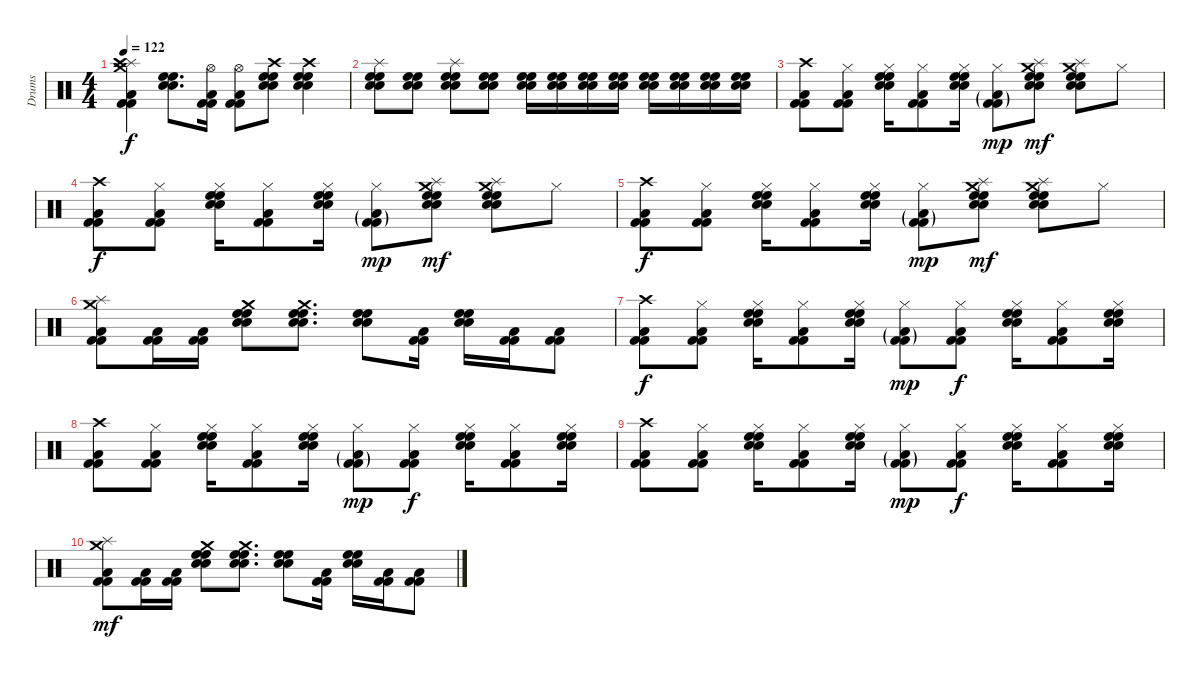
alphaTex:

\track ("Drums" "Drums") {instrument percussion}
\staff {score}
\articulation defaults
\ts (4 4)
\tempo 122
\clef neutral
\ks c
("Crash medium (hit)" "Splash (hit)" "Crash high (hit)" "Low Floor Tom (hit)" "Kick (hit) 2" "Kick (hit) 2").4{dy f} ("Electric Snare (hit)" "High Floor Tom (hit)" "Electric Snare (hit)" "High Floor Tom (hit)").8{d} ("Hi-Hat (open)" "Low Floor Tom (hit)" "Kick (hit) 2" "Kick (hit) 2").16 ("Hi-Hat (open)" "Low Floor Tom (hit)" "Kick (hit) 2" "Kick (hit) 2").8 ("Crash high (hit)" "Electric Snare (hit)" "High Floor Tom (hit)" "Electric Snare (hit)" "High Floor Tom (hit)").8 ("Crash high (hit)" "Electric Snare (hit)" "High Floor Tom (hit)" "Electric Snare (hit)" "High Floor Tom (hit)").4 |
("Splash (hit)" "Electric Snare (hit)" "High Floor Tom (hit)"{x} "High Floor Tom (hit)" "Electric Snare (hit)").8 ("Electric Snare (hit)" "High Floor Tom (hit)"{x} "High Floor Tom (hit)" "Electric Snare (hit)").8 ("Splash (hit)" "Electric Snare (hit)" "High Floor Tom (hit)"{x} "High Floor Tom (hit)" "Electric Snare (hit)").8 ("Electric Snare (hit)" "High Floor Tom (hit)"{x} "High Floor Tom (hit)" "Electric Snare (hit)").8 ("Electric Snare (hit)" "High Floor Tom (hit)"{x} "High Floor Tom (hit)" "Electric Snare (hit)").16 ("Electric Snare (hit)" "High Floor Tom (hit)"{x} "High Floor Tom (hit)" "Electric Snare (hit)").16 ("Electric Snare (hit)" "High Floor Tom (hit)" "High Floor Tom (hit)" "Electric Snare (hit)").16 ("Electric Snare (hit)" "High Floor Tom (hit)" "High Floor Tom (hit)" "Electric Snare (hit)").16 ("Electric Snare (hit)" "High Floor Tom (hit)" "High Floor Tom (hit)" "Electric Snare (hit)").16 ("Electric Snare (hit)" "High Floor Tom (hit)" "High Floor Tom (hit)" "Electric Snare (hit)").16 ("Electric Snare (hit)" "High Floor Tom (hit)" "High Floor Tom (hit)" "Electric Snare (hit)").16 ("Electric Snare (hit)" "High Floor Tom (hit)" "High Floor Tom (hit)" "Electric Snare (hit)").16 |
("Crash high (hit)" "Low Floor Tom (hit)" "Kick (hit) 2" "Kick (hit) 2").8 ("Hi-Hat (closed)" "Low Floor Tom (hit)" "Kick (hit) 2" "Kick (hit) 2").8 ("Hi-Hat (closed)" "High Floor Tom (hit)" "Electric Snare (hit)" "High Floor Tom (hit)" "Electric Snare (hit)").16 ("Hi-Hat (closed)" "Low Floor Tom (hit)" "Kick (hit) 2" "Kick (hit) 2").8 ("Hi-Hat (closed)" "High Floor Tom (hit)" "Electric Snare (hit)" "High Floor Tom (hit)" "Electric Snare (hit)").16 ("Hi-Hat (closed)" "Low Floor Tom (hit)"{g} "Kick (hit) 2"{g} "Kick (hit) 2"{g}).8{dy mp} ("Crash medium (hit)" "High Floor Tom (hit)" "Electric Snare (hit)" "High Floor Tom (hit)" "Electric Snare (hit)" "Splash (hit)").8{dy mf} ("Crash medium (hit)" "High Floor Tom (hit)" "Electric Snare (hit)" "High Floor Tom (hit)" "Electric Snare (hit)" "Splash (hit)").8 "Hi-Hat (closed)".8 |
("Crash high (hit)" "Low Floor Tom (hit)" "Kick (hit) 2" "Kick (hit) 2").8{dy f} ("Hi-Hat (closed)" "Low Floor Tom (hit)" "Kick (hit) 2" "Kick (hit) 2").8 ("Hi-Hat (closed)" "High Floor Tom (hit)" "Electric Snare (hit)" "High Floor Tom (hit)" "Electric Snare (hit)").16 ("Hi-Hat (closed)" "Low Floor Tom (hit)" "Kick (hit) 2" "Kick (hit) 2").8 ("Hi-Hat (closed)" "High Floor Tom (hit)" "Electric Snare (hit)" "High Floor Tom (hit)" "Electric Snare (hit)").16 ("Hi-Hat (closed)" "Low Floor Tom (hit)"{g} "Kick (hit) 2"{g} "Kick (hit) 2"{g}).8{dy mp} ("Crash medium (hit)" "High Floor Tom (hit)" "Electric Snare (hit)" "High Floor Tom (hit)" "Electric Snare (hit)" "Splash (hit)").8{dy mf} ("Crash medium (hit)" "High Floor Tom (hit)" "Electric Snare (hit)" "High Floor Tom (hit)" "Electric Snare (hit)" "Splash (hit)").8 "Hi-Hat (closed)".8 |
("Crash high (hit)" "Low Floor Tom (hit)" "Kick (hit) 2" "Kick (hit) 2").8{dy f} ("Hi-Hat (closed)" "Low Floor Tom (hit)" "Kick (hit) 2" "Kick (hit) 2").8 ("Hi-Hat (closed)" "High Floor Tom (hit)" "Electric Snare (hit)" "High Floor Tom (hit)" "Electric Snare (hit)").16 ("Hi-Hat (closed)" "Low Floor Tom (hit)" "Kick (hit) 2" "Kick (hit) 2").8 ("Hi-Hat (closed)" "High Floor Tom (hit)" "Electric Snare (hit)" "High Floor Tom (hit)" "Electric Snare (hit)").16 ("Hi-Hat (closed)" "Low Floor Tom (hit)"{g} "Kick (hit) 2"{g} "Kick (hit) 2"{g}).8{dy mp} ("Crash medium (hit)" "High Floor Tom (hit)" "Electric Snare (hit)" "High Floor Tom (hit)" "Electric Snare (hit)" "Splash (hit)").8{dy mf} ("Crash medium (hit)" "High Floor Tom (hit)" "Electric Snare (hit)" "High Floor Tom (hit)" "Electric Snare (hit)" "Splash (hit)").8 "Hi-Hat (closed)".8 |
("Crash medium (hit)" "Splash (hit)" "Low Floor Tom (hit)" "Kick (hit) 2" "Kick (hit) 2").8 ("Low Floor Tom (hit)" "Kick (hit) 2" "Kick (hit) 2").16 ("Low Floor Tom (hit)" "Kick (hit) 2" "Kick (hit) 2").16 ("Crash medium (hit)" "High Floor Tom (hit)" "Electric Snare (hit)" "High Floor Tom (hit)" "Electric Snare (hit)").8 ("Crash medium (hit)" "High Floor Tom (hit)" "Electric Snare (hit)" "High Floor Tom (hit)" "Electric Snare (hit)").8{d} ("High Floor Tom (hit)" "Electric Snare (hit)" "High Floor Tom (hit)" "Electric Snare (hit)").8 ("Low Floor Tom (hit)" "Kick (hit) 2" "Kick (hit) 2").16 ("High Floor Tom (hit)" "Electric Snare (hit)" "High Floor Tom (hit)" "Electric Snare (hit)").16 ("Low Floor Tom (hit)" "Kick (hit) 2" "Kick (hit) 2").16 ("Low Floor Tom (hit)" "Kick (hit) 2" "Kick (hit) 2").8 |
("Crash high (hit)" "Low Floor Tom (hit)" "Kick (hit) 2" "Kick (hit) 2").8{dy f} ("Hi-Hat (closed)" "Low Floor Tom (hit)" "Kick (hit) 2" "Kick (hit) 2").8 ("Hi-Hat (closed)" "High Floor Tom (hit)" "Electric Snare (hit)" "High Floor Tom (hit)" "Electric Snare (hit)").16 ("Hi-Hat (closed)" "Low Floor Tom (hit)" "Kick (hit) 2" "Kick (hit) 2").8 ("Hi-Hat (closed)" "High Floor Tom (hit)" "Electric Snare (hit)" "High Floor Tom (hit)" "Electric Snare (hit)").16 ("Hi-Hat (closed)" "Low Floor Tom (hit)"{g} "Kick (hit) 2"{g} "Kick (hit) 2"{g}).8{dy mp} ("Hi-Hat (closed)" "Low Floor Tom (hit)" "Kick (hit) 2" "Kick (hit) 2").8{dy f} ("Hi-Hat (closed)" "High Floor Tom (hit)" "Electric Snare (hit)" "High Floor Tom (hit)" "Electric Snare (hit)").16 ("Hi-Hat (closed)" "Low Floor Tom (hit)" "Kick (hit) 2" "Kick (hit) 2").8 ("Hi-Hat (closed)" "High Floor Tom (hit)" "Electric Snare (hit)" "High Floor Tom (hit)" "Electric Snare (hit)").16 |
("Crash high (hit)" "Low Floor Tom (hit)" "Kick (hit) 2" "Kick (hit) 2").8 ("Hi-Hat (closed)" "Low Floor Tom (hit)" "Kick (hit) 2" "Kick (hit) 2").8 ("Hi-Hat (closed)" "High Floor Tom (hit)" "Electric Snare (hit)" "High Floor Tom (hit)" "Electric Snare (hit)").16 ("Hi-Hat (closed)" "Low Floor Tom (hit)" "Kick (hit) 2" "Kick (hit) 2").8 ("Hi-Hat (closed)" "High Floor Tom (hit)" "Electric Snare (hit)" "High Floor Tom (hit)" "Electric Snare (hit)").16 ("Hi-Hat (closed)" "Low Floor Tom (hit)"{g} "Kick (hit) 2"{g} "Kick (hit) 2"{g}).8{dy mp} ("Hi-Hat (closed)" "Low Floor Tom (hit)" "Kick (hit) 2" "Kick (hit) 2").8{dy f} ("Hi-Hat (closed)" "High Floor Tom (hit)" "Electric Snare (hit)" "High Floor Tom (hit)" "Electric Snare (hit)").16 ("Hi-Hat (closed)" "Low Floor Tom (hit)" "Kick (hit) 2" "Kick (hit) 2").8 ("Hi-Hat (closed)" "High Floor Tom (hit)" "Electric Snare (hit)" "High Floor Tom (hit)" "Electric Snare (hit)").16 |
("Crash high (hit)" "Low Floor Tom (hit)" "Kick (hit) 2" "Kick (hit) 2").8 ("Hi-Hat (closed)" "Low Floor Tom (hit)" "Kick (hit) 2" "Kick (hit) 2").8 ("Hi-Hat (closed)" "High Floor Tom (hit)" "Electric Snare (hit)" "High Floor Tom (hit)" "Electric Snare (hit)").16 ("Hi-Hat (closed)" "Low Floor Tom (hit)" "Kick (hit) 2" "Kick (hit) 2").8 ("Hi-Hat (closed)" "High Floor Tom (hit)" "Electric Snare (hit)" "High Floor Tom (hit)" "Electric Snare (hit)").16 ("Hi-Hat (closed)" "Low Floor Tom (hit)"{g} "Kick (hit) 2"{g} "Kick (hit) 2"{g}).8{dy mp} ("Hi-Hat (closed)" "Low Floor Tom (hit)" "Kick (hit) 2" "Kick (hit) 2").8{dy f} ("Hi-Hat (closed)" "High Floor Tom (hit)" "Electric Snare (hit)" "High Floor Tom (hit)" "Electric Snare (hit)").16 ("Hi-Hat (closed)" "Low Floor Tom (hit)" "Kick (hit) 2" "Kick (hit) 2").8 ("Hi-Hat (closed)" "High Floor Tom (hit)" "Electric Snare (hit)" "High Floor Tom (hit)" "Electric Snare (hit)").16 |
("Crash medium (hit)" "Splash (hit)" "Low Floor Tom (hit)" "Kick (hit) 2" "Kick (hit) 2").8{dy mf} ("Low Floor Tom (hit)" "Kick (hit) 2" "Kick (hit) 2").16 ("Low Floor Tom (hit)" "Kick (hit) 2" "Kick (hit) 2").16 ("Crash medium (hit)" "High Floor Tom (hit)" "Electric Snare (hit)" "High Floor Tom (hit)" "Electric Snare (hit)").8 ("Crash medium (hit)" "High Floor Tom (hit)" "Electric Snare (hit)" "High Floor Tom (hit)" "Electric Snare (hit)").8{d} ("High Floor Tom (hit)" "Electric Snare (hit)" "High Floor Tom (hit)" "Electric Snare (hit)").8 ("Low Floor Tom (hit)" "Kick (hit) 2" "Kick (hit) 2").16 ("High Floor Tom (hit)" "Electric Snare (hit)" "High Floor Tom (hit)" "Electric Snare (hit)").16 ("Low Floor Tom (hit)" "Kick (hit) 2" "Kick (hit) 2").16 ("Low Floor Tom (hit)" "Kick (hit) 2" "Kick (hit) 2").8
